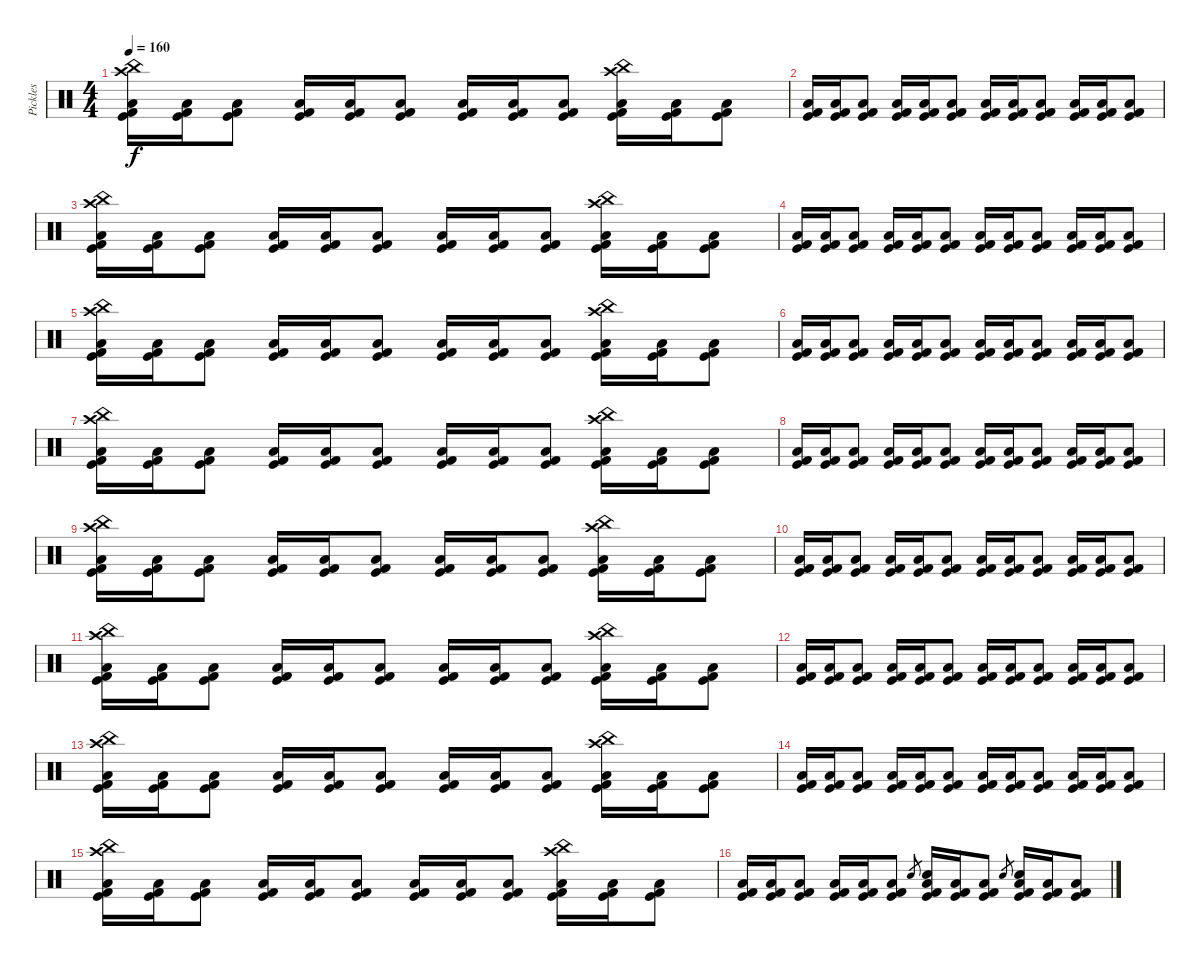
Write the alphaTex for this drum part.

\track ("Pickles" "Pickles") {instrument percussion}
\staff {score}
\articulation defaults
\ts (4 4)
\tempo 160
\clef neutral
\ks c
("Kick (hit) 2" "Kick (hit)" "Low Tom (hit)" "China (hit)" "Crash high (hit)").16{dy f} ("Kick (hit) 2" "Kick (hit)" "Low Tom (hit)").16 ("Kick (hit) 2" "Kick (hit)" "Low Tom (hit)").8 ("Kick (hit) 2" "Kick (hit)" "Low Tom (hit)").16 ("Kick (hit) 2" "Kick (hit)" "Low Tom (hit)").16 ("Kick (hit) 2" "Kick (hit)" "Low Tom (hit)").8 ("Kick (hit) 2" "Kick (hit)" "Low Tom (hit)").16 ("Kick (hit) 2" "Kick (hit)" "Low Tom (hit)").16 ("Kick (hit) 2" "Kick (hit)" "Low Tom (hit)").8 ("Kick (hit) 2" "Kick (hit)" "Low Tom (hit)" "China (hit)" "Crash high (hit)").16 ("Kick (hit) 2" "Kick (hit)" "Low Tom (hit)").16 ("Kick (hit) 2" "Kick (hit)" "Low Tom (hit)").8 |
("Kick (hit) 2" "Kick (hit)" "Low Tom (hit)").16 ("Kick (hit) 2" "Kick (hit)" "Low Tom (hit)").16 ("Kick (hit) 2" "Kick (hit)" "Low Tom (hit)").8 ("Kick (hit) 2" "Kick (hit)" "Low Tom (hit)").16 ("Kick (hit) 2" "Kick (hit)" "Low Tom (hit)").16 ("Kick (hit) 2" "Kick (hit)" "Low Tom (hit)").8 ("Kick (hit) 2" "Kick (hit)" "Low Tom (hit)").16 ("Kick (hit) 2" "Kick (hit)" "Low Tom (hit)").16 ("Kick (hit) 2" "Kick (hit)" "Low Tom (hit)").8 ("Kick (hit) 2" "Kick (hit)" "Low Tom (hit)").16 ("Kick (hit) 2" "Kick (hit)" "Low Tom (hit)").16 ("Kick (hit) 2" "Kick (hit)" "Low Tom (hit)").8 |
("Kick (hit) 2" "Kick (hit)" "Low Tom (hit)" "China (hit)" "Crash high (hit)").16 ("Kick (hit) 2" "Kick (hit)" "Low Tom (hit)").16 ("Kick (hit) 2" "Kick (hit)" "Low Tom (hit)").8 ("Kick (hit) 2" "Kick (hit)" "Low Tom (hit)").16 ("Kick (hit) 2" "Kick (hit)" "Low Tom (hit)").16 ("Kick (hit) 2" "Kick (hit)" "Low Tom (hit)").8 ("Kick (hit) 2" "Kick (hit)" "Low Tom (hit)").16 ("Kick (hit) 2" "Kick (hit)" "Low Tom (hit)").16 ("Kick (hit) 2" "Kick (hit)" "Low Tom (hit)").8 ("Kick (hit) 2" "Kick (hit)" "Low Tom (hit)" "China (hit)" "Crash high (hit)").16 ("Kick (hit) 2" "Kick (hit)" "Low Tom (hit)").16 ("Kick (hit) 2" "Kick (hit)" "Low Tom (hit)").8 |
("Kick (hit) 2" "Kick (hit)" "Low Tom (hit)").16 ("Kick (hit) 2" "Kick (hit)" "Low Tom (hit)").16 ("Kick (hit) 2" "Kick (hit)" "Low Tom (hit)").8 ("Kick (hit) 2" "Kick (hit)" "Low Tom (hit)").16 ("Kick (hit) 2" "Kick (hit)" "Low Tom (hit)").16 ("Kick (hit) 2" "Kick (hit)" "Low Tom (hit)").8 ("Kick (hit) 2" "Kick (hit)" "Low Tom (hit)").16 ("Kick (hit) 2" "Kick (hit)" "Low Tom (hit)").16 ("Kick (hit) 2" "Kick (hit)" "Low Tom (hit)").8 ("Kick (hit) 2" "Kick (hit)" "Low Tom (hit)").16 ("Kick (hit) 2" "Kick (hit)" "Low Tom (hit)").16 ("Kick (hit) 2" "Kick (hit)" "Low Tom (hit)").8 |
("Kick (hit) 2" "Kick (hit)" "Low Tom (hit)" "China (hit)" "Crash high (hit)").16 ("Kick (hit) 2" "Kick (hit)" "Low Tom (hit)").16 ("Kick (hit) 2" "Kick (hit)" "Low Tom (hit)").8 ("Kick (hit) 2" "Kick (hit)" "Low Tom (hit)").16 ("Kick (hit) 2" "Kick (hit)" "Low Tom (hit)").16 ("Kick (hit) 2" "Kick (hit)" "Low Tom (hit)").8 ("Kick (hit) 2" "Kick (hit)" "Low Tom (hit)").16 ("Kick (hit) 2" "Kick (hit)" "Low Tom (hit)").16 ("Kick (hit) 2" "Kick (hit)" "Low Tom (hit)").8 ("Kick (hit) 2" "Kick (hit)" "Low Tom (hit)" "China (hit)" "Crash high (hit)").16 ("Kick (hit) 2" "Kick (hit)" "Low Tom (hit)").16 ("Kick (hit) 2" "Kick (hit)" "Low Tom (hit)").8 |
("Kick (hit) 2" "Kick (hit)" "Low Tom (hit)").16 ("Kick (hit) 2" "Kick (hit)" "Low Tom (hit)").16 ("Kick (hit) 2" "Kick (hit)" "Low Tom (hit)").8 ("Kick (hit) 2" "Kick (hit)" "Low Tom (hit)").16 ("Kick (hit) 2" "Kick (hit)" "Low Tom (hit)").16 ("Kick (hit) 2" "Kick (hit)" "Low Tom (hit)").8 ("Kick (hit) 2" "Kick (hit)" "Low Tom (hit)").16 ("Kick (hit) 2" "Kick (hit)" "Low Tom (hit)").16 ("Kick (hit) 2" "Kick (hit)" "Low Tom (hit)").8 ("Kick (hit) 2" "Kick (hit)" "Low Tom (hit)").16 ("Kick (hit) 2" "Kick (hit)" "Low Tom (hit)").16 ("Kick (hit) 2" "Kick (hit)" "Low Tom (hit)").8 |
("Kick (hit) 2" "Kick (hit)" "Low Tom (hit)" "China (hit)" "Crash high (hit)").16 ("Kick (hit) 2" "Kick (hit)" "Low Tom (hit)").16 ("Kick (hit) 2" "Kick (hit)" "Low Tom (hit)").8 ("Kick (hit) 2" "Kick (hit)" "Low Tom (hit)").16 ("Kick (hit) 2" "Kick (hit)" "Low Tom (hit)").16 ("Kick (hit) 2" "Kick (hit)" "Low Tom (hit)").8 ("Kick (hit) 2" "Kick (hit)" "Low Tom (hit)").16 ("Kick (hit) 2" "Kick (hit)" "Low Tom (hit)").16 ("Kick (hit) 2" "Kick (hit)" "Low Tom (hit)").8 ("Kick (hit) 2" "Kick (hit)" "Low Tom (hit)" "China (hit)" "Crash high (hit)").16 ("Kick (hit) 2" "Kick (hit)" "Low Tom (hit)").16 ("Kick (hit) 2" "Kick (hit)" "Low Tom (hit)").8 |
("Kick (hit) 2" "Kick (hit)" "Low Tom (hit)").16 ("Kick (hit) 2" "Kick (hit)" "Low Tom (hit)").16 ("Kick (hit) 2" "Kick (hit)" "Low Tom (hit)").8 ("Kick (hit) 2" "Kick (hit)" "Low Tom (hit)").16 ("Kick (hit) 2" "Kick (hit)" "Low Tom (hit)").16 ("Kick (hit) 2" "Kick (hit)" "Low Tom (hit)").8 ("Kick (hit) 2" "Kick (hit)" "Low Tom (hit)").16 ("Kick (hit) 2" "Kick (hit)" "Low Tom (hit)").16 ("Kick (hit) 2" "Kick (hit)" "Low Tom (hit)").8 ("Kick (hit) 2" "Kick (hit)" "Low Tom (hit)").16 ("Kick (hit) 2" "Kick (hit)" "Low Tom (hit)").16 ("Kick (hit) 2" "Kick (hit)" "Low Tom (hit)").8 |
("Kick (hit) 2" "Kick (hit)" "Low Tom (hit)" "China (hit)" "Crash high (hit)").16 ("Kick (hit) 2" "Kick (hit)" "Low Tom (hit)").16 ("Kick (hit) 2" "Kick (hit)" "Low Tom (hit)").8 ("Kick (hit) 2" "Kick (hit)" "Low Tom (hit)").16 ("Kick (hit) 2" "Kick (hit)" "Low Tom (hit)").16 ("Kick (hit) 2" "Kick (hit)" "Low Tom (hit)").8 ("Kick (hit) 2" "Kick (hit)" "Low Tom (hit)").16 ("Kick (hit) 2" "Kick (hit)" "Low Tom (hit)").16 ("Kick (hit) 2" "Kick (hit)" "Low Tom (hit)").8 ("Kick (hit) 2" "Kick (hit)" "Low Tom (hit)" "China (hit)" "Crash high (hit)").16 ("Kick (hit) 2" "Kick (hit)" "Low Tom (hit)").16 ("Kick (hit) 2" "Kick (hit)" "Low Tom (hit)").8 |
("Kick (hit) 2" "Kick (hit)" "Low Tom (hit)").16 ("Kick (hit) 2" "Kick (hit)" "Low Tom (hit)").16 ("Kick (hit) 2" "Kick (hit)" "Low Tom (hit)").8 ("Kick (hit) 2" "Kick (hit)" "Low Tom (hit)").16 ("Kick (hit) 2" "Kick (hit)" "Low Tom (hit)").16 ("Kick (hit) 2" "Kick (hit)" "Low Tom (hit)").8 ("Kick (hit) 2" "Kick (hit)" "Low Tom (hit)").16 ("Kick (hit) 2" "Kick (hit)" "Low Tom (hit)").16 ("Kick (hit) 2" "Kick (hit)" "Low Tom (hit)").8 ("Kick (hit) 2" "Kick (hit)" "Low Tom (hit)").16 ("Kick (hit) 2" "Kick (hit)" "Low Tom (hit)").16 ("Kick (hit) 2" "Kick (hit)" "Low Tom (hit)").8 |
("Kick (hit) 2" "Kick (hit)" "Low Tom (hit)" "China (hit)" "Crash high (hit)").16 ("Kick (hit) 2" "Kick (hit)" "Low Tom (hit)").16 ("Kick (hit) 2" "Kick (hit)" "Low Tom (hit)").8 ("Kick (hit) 2" "Kick (hit)" "Low Tom (hit)").16 ("Kick (hit) 2" "Kick (hit)" "Low Tom (hit)").16 ("Kick (hit) 2" "Kick (hit)" "Low Tom (hit)").8 ("Kick (hit) 2" "Kick (hit)" "Low Tom (hit)").16 ("Kick (hit) 2" "Kick (hit)" "Low Tom (hit)").16 ("Kick (hit) 2" "Kick (hit)" "Low Tom (hit)").8 ("Kick (hit) 2" "Kick (hit)" "Low Tom (hit)" "China (hit)" "Crash high (hit)").16 ("Kick (hit) 2" "Kick (hit)" "Low Tom (hit)").16 ("Kick (hit) 2" "Kick (hit)" "Low Tom (hit)").8 |
("Kick (hit) 2" "Kick (hit)" "Low Tom (hit)").16 ("Kick (hit) 2" "Kick (hit)" "Low Tom (hit)").16 ("Kick (hit) 2" "Kick (hit)" "Low Tom (hit)").8 ("Kick (hit) 2" "Kick (hit)" "Low Tom (hit)").16 ("Kick (hit) 2" "Kick (hit)" "Low Tom (hit)").16 ("Kick (hit) 2" "Kick (hit)" "Low Tom (hit)").8 ("Kick (hit) 2" "Kick (hit)" "Low Tom (hit)").16 ("Kick (hit) 2" "Kick (hit)" "Low Tom (hit)").16 ("Kick (hit) 2" "Kick (hit)" "Low Tom (hit)").8 ("Kick (hit) 2" "Kick (hit)" "Low Tom (hit)").16 ("Kick (hit) 2" "Kick (hit)" "Low Tom (hit)").16 ("Kick (hit) 2" "Kick (hit)" "Low Tom (hit)").8 |
("Kick (hit) 2" "Kick (hit)" "Low Tom (hit)" "China (hit)" "Crash high (hit)").16 ("Kick (hit) 2" "Kick (hit)" "Low Tom (hit)").16 ("Kick (hit) 2" "Kick (hit)" "Low Tom (hit)").8 ("Kick (hit) 2" "Kick (hit)" "Low Tom (hit)").16 ("Kick (hit) 2" "Kick (hit)" "Low Tom (hit)").16 ("Kick (hit) 2" "Kick (hit)" "Low Tom (hit)").8 ("Kick (hit) 2" "Kick (hit)" "Low Tom (hit)").16 ("Kick (hit) 2" "Kick (hit)" "Low Tom (hit)").16 ("Kick (hit) 2" "Kick (hit)" "Low Tom (hit)").8 ("Kick (hit) 2" "Kick (hit)" "Low Tom (hit)" "China (hit)" "Crash high (hit)").16 ("Kick (hit) 2" "Kick (hit)" "Low Tom (hit)").16 ("Kick (hit) 2" "Kick (hit)" "Low Tom (hit)").8 |
("Kick (hit) 2" "Kick (hit)" "Low Tom (hit)").16 ("Kick (hit) 2" "Kick (hit)" "Low Tom (hit)").16 ("Kick (hit) 2" "Kick (hit)" "Low Tom (hit)").8 ("Kick (hit) 2" "Kick (hit)" "Low Tom (hit)").16 ("Kick (hit) 2" "Kick (hit)" "Low Tom (hit)").16 ("Kick (hit) 2" "Kick (hit)" "Low Tom (hit)").8 ("Kick (hit) 2" "Kick (hit)" "Low Tom (hit)").16 ("Kick (hit) 2" "Kick (hit)" "Low Tom (hit)").16 ("Kick (hit) 2" "Kick (hit)" "Low Tom (hit)").8 ("Kick (hit) 2" "Kick (hit)" "Low Tom (hit)").16 ("Kick (hit) 2" "Kick (hit)" "Low Tom (hit)").16 ("Kick (hit) 2" "Kick (hit)" "Low Tom (hit)").8 |
("Kick (hit) 2" "Kick (hit)" "Low Tom (hit)" "China (hit)" "Crash high (hit)").16 ("Kick (hit) 2" "Kick (hit)" "Low Tom (hit)").16 ("Kick (hit) 2" "Kick (hit)" "Low Tom (hit)").8 ("Kick (hit) 2" "Kick (hit)" "Low Tom (hit)").16 ("Kick (hit) 2" "Kick (hit)" "Low Tom (hit)").16 ("Kick (hit) 2" "Kick (hit)" "Low Tom (hit)").8 ("Kick (hit) 2" "Kick (hit)" "Low Tom (hit)").16 ("Kick (hit) 2" "Kick (hit)" "Low Tom (hit)").16 ("Kick (hit) 2" "Kick (hit)" "Low Tom (hit)").8 ("Kick (hit) 2" "Kick (hit)" "Low Tom (hit)" "China (hit)" "Crash high (hit)").16 ("Kick (hit) 2" "Kick (hit)" "Low Tom (hit)").16 ("Kick (hit) 2" "Kick (hit)" "Low Tom (hit)").8 |
("Kick (hit) 2" "Kick (hit)" "Low Tom (hit)").16 ("Kick (hit) 2" "Kick (hit)" "Low Tom (hit)").16 ("Kick (hit) 2" "Kick (hit)" "Low Tom (hit)").8 ("Kick (hit) 2" "Kick (hit)" "Low Tom (hit)").16 ("Kick (hit) 2" "Kick (hit)" "Low Tom (hit)").16 ("Kick (hit) 2" "Kick (hit)" "Low Tom (hit)").8 "Electric Snare (hit)".8{gr} ("Kick (hit) 2" "Kick (hit)" "Low Tom (hit)" "Electric Snare (hit)").16 ("Kick (hit) 2" "Kick (hit)" "Low Tom (hit)").16 ("Kick (hit) 2" "Kick (hit)" "Low Tom (hit)").8 "Electric Snare (hit)".8{gr} ("Kick (hit) 2" "Kick (hit)" "Low Tom (hit)" "Electric Snare (hit)").16 ("Kick (hit) 2" "Kick (hit)" "Low Tom (hit)").16 ("Kick (hit) 2" "Kick (hit)" "Low Tom (hit)").8
